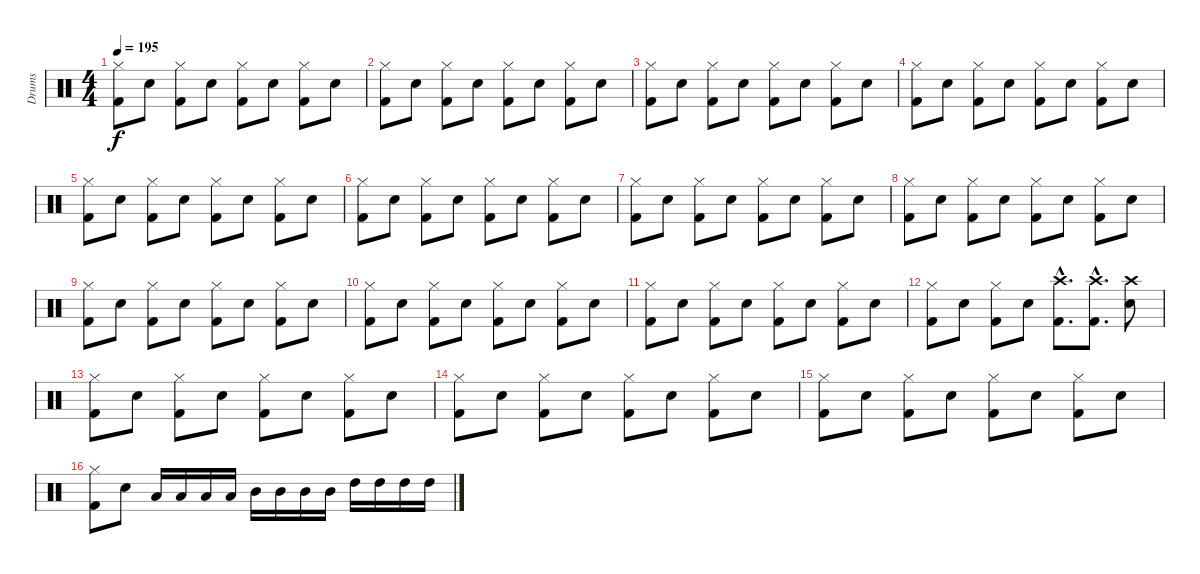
\track ("Drums" "Drums") {instrument percussion}
\staff {score}
\articulation defaults
\ts (4 4)
\tempo 195
\clef neutral
\ks c
("Kick (hit) 2" "Hi-Hat (closed)").8{dy f} "Snare (hit) 2".8 ("Kick (hit) 2" "Hi-Hat (closed)").8 "Snare (hit) 2".8 ("Kick (hit) 2" "Hi-Hat (closed)").8 "Snare (hit) 2".8 ("Kick (hit) 2" "Hi-Hat (closed)").8 "Snare (hit) 2".8 |
("Kick (hit) 2" "Hi-Hat (closed)").8 "Snare (hit) 2".8 ("Kick (hit) 2" "Hi-Hat (closed)").8 "Snare (hit) 2".8 ("Kick (hit) 2" "Hi-Hat (closed)").8 "Snare (hit) 2".8 ("Kick (hit) 2" "Hi-Hat (closed)").8 "Snare (hit) 2".8 |
("Kick (hit) 2" "Hi-Hat (closed)").8 "Snare (hit) 2".8 ("Kick (hit) 2" "Hi-Hat (closed)").8 "Snare (hit) 2".8 ("Kick (hit) 2" "Hi-Hat (closed)").8 "Snare (hit) 2".8 ("Kick (hit) 2" "Hi-Hat (closed)").8 "Snare (hit) 2".8 |
("Kick (hit) 2" "Hi-Hat (closed)").8 "Snare (hit) 2".8 ("Kick (hit) 2" "Hi-Hat (closed)").8 "Snare (hit) 2".8 ("Kick (hit) 2" "Hi-Hat (closed)").8 "Snare (hit) 2".8 ("Kick (hit) 2" "Hi-Hat (closed)").8 "Snare (hit) 2".8 |
("Kick (hit) 2" "Hi-Hat (closed)").8 "Snare (hit) 2".8 ("Kick (hit) 2" "Hi-Hat (closed)").8 "Snare (hit) 2".8 ("Kick (hit) 2" "Hi-Hat (closed)").8 "Snare (hit) 2".8 ("Kick (hit) 2" "Hi-Hat (closed)").8 "Snare (hit) 2".8 |
("Kick (hit) 2" "Hi-Hat (closed)").8 "Snare (hit) 2".8 ("Kick (hit) 2" "Hi-Hat (closed)").8 "Snare (hit) 2".8 ("Kick (hit) 2" "Hi-Hat (closed)").8 "Snare (hit) 2".8 ("Kick (hit) 2" "Hi-Hat (closed)").8 "Snare (hit) 2".8 |
("Kick (hit) 2" "Hi-Hat (closed)").8 "Snare (hit) 2".8 ("Kick (hit) 2" "Hi-Hat (closed)").8 "Snare (hit) 2".8 ("Kick (hit) 2" "Hi-Hat (closed)").8 "Snare (hit) 2".8 ("Kick (hit) 2" "Hi-Hat (closed)").8 "Snare (hit) 2".8 |
("Kick (hit) 2" "Hi-Hat (closed)").8 "Snare (hit) 2".8 ("Kick (hit) 2" "Hi-Hat (closed)").8 "Snare (hit) 2".8 ("Kick (hit) 2" "Hi-Hat (closed)").8 "Snare (hit) 2".8 ("Kick (hit) 2" "Hi-Hat (closed)").8 "Snare (hit) 2".8 |
("Kick (hit) 2" "Hi-Hat (closed)").8 "Snare (hit) 2".8 ("Kick (hit) 2" "Hi-Hat (closed)").8 "Snare (hit) 2".8 ("Kick (hit) 2" "Hi-Hat (closed)").8 "Snare (hit) 2".8 ("Kick (hit) 2" "Hi-Hat (closed)").8 "Snare (hit) 2".8 |
("Kick (hit) 2" "Hi-Hat (closed)").8 "Snare (hit) 2".8 ("Kick (hit) 2" "Hi-Hat (closed)").8 "Snare (hit) 2".8 ("Kick (hit) 2" "Hi-Hat (closed)").8 "Snare (hit) 2".8 ("Kick (hit) 2" "Hi-Hat (closed)").8 "Snare (hit) 2".8 |
("Kick (hit) 2" "Hi-Hat (closed)").8 "Snare (hit) 2".8 ("Kick (hit) 2" "Hi-Hat (closed)").8 "Snare (hit) 2".8 ("Kick (hit) 2" "Hi-Hat (closed)").8 "Snare (hit) 2".8 ("Kick (hit) 2" "Hi-Hat (closed)").8 "Snare (hit) 2".8 |
("Kick (hit) 2" "Hi-Hat (closed)").8 "Snare (hit) 2".8 ("Kick (hit) 2" "Hi-Hat (closed)").8 "Snare (hit) 2".8 ("Kick (hit) 2"{hac} "Crash high (hit)"{hac}).8{d} ("Kick (hit) 2"{hac} "Crash high (hit)"{hac}).8{d} ("Snare (hit) 2" "Crash high (hit)").8 |
("Kick (hit) 2" "Hi-Hat (closed)").8 "Snare (hit) 2".8 ("Kick (hit) 2" "Hi-Hat (closed)").8 "Snare (hit) 2".8 ("Kick (hit) 2" "Hi-Hat (closed)").8 "Snare (hit) 2".8 ("Kick (hit) 2" "Hi-Hat (closed)").8 "Snare (hit) 2".8 |
("Kick (hit) 2" "Hi-Hat (closed)").8 "Snare (hit) 2".8 ("Kick (hit) 2" "Hi-Hat (closed)").8 "Snare (hit) 2".8 ("Kick (hit) 2" "Hi-Hat (closed)").8 "Snare (hit) 2".8 ("Kick (hit) 2" "Hi-Hat (closed)").8 "Snare (hit) 2".8 |
("Kick (hit) 2" "Hi-Hat (closed)").8 "Snare (hit) 2".8 ("Kick (hit) 2" "Hi-Hat (closed)").8 "Snare (hit) 2".8 ("Kick (hit) 2" "Hi-Hat (closed)").8 "Snare (hit) 2".8 ("Kick (hit) 2" "Hi-Hat (closed)").8 "Snare (hit) 2".8 |
("Kick (hit) 2" "Hi-Hat (closed)").8 "Snare (hit) 2".8 "Low Tom (hit)".16 "Low Tom (hit)".16 "Low Tom (hit)".16 "Low Tom (hit)".16 "Mid Tom (hit)".16 "Mid Tom (hit)".16 "Mid Tom (hit)".16 "Mid Tom (hit)".16 "High Tom (hit)".16 "High Tom (hit)".16 "High Tom (hit)".16 "High Tom (hit)".16
